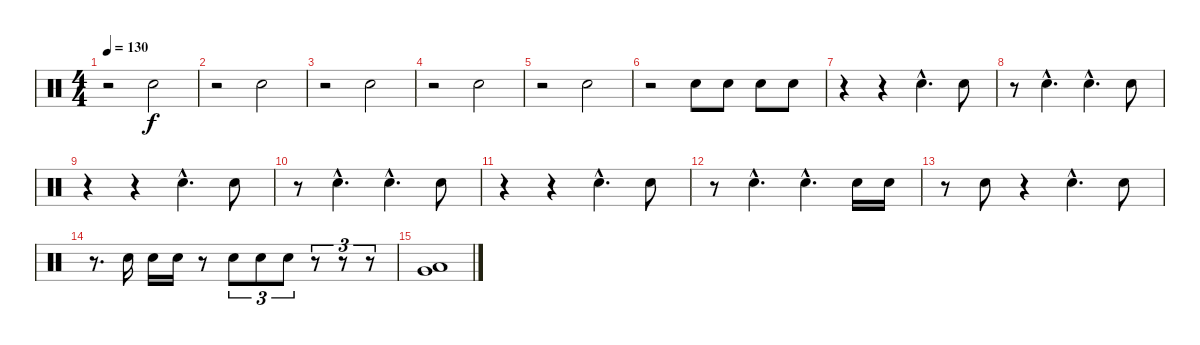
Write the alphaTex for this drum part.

\track "" {instrument percussion}
\staff {score}
\articulation defaults
\ts (4 4)
\tempo 130
\clef neutral
\ks c
r.2{dy f} "Electric Snare (hit)".2 |
r.2 "Electric Snare (hit)".2 |
r.2 "Electric Snare (hit)".2 |
r.2 "Electric Snare (hit)".2 |
r.2 "Electric Snare (hit)".2 |
r.2 "Electric Snare (hit)".8 "Electric Snare (hit)".8 "Electric Snare (hit)".8 "Electric Snare (hit)".8 |
r.4 r.4 "Electric Snare (hit)"{hac}.4{d} "Electric Snare (hit)".8 |
r.8 "Electric Snare (hit)"{hac}.4{d} "Electric Snare (hit)"{hac}.4{d} "Electric Snare (hit)".8 |
r.4 r.4 "Electric Snare (hit)"{hac}.4{d} "Electric Snare (hit)".8 |
r.8 "Electric Snare (hit)"{hac}.4{d} "Electric Snare (hit)"{hac}.4{d} "Electric Snare (hit)".8 |
r.4 r.4 "Electric Snare (hit)"{hac}.4{d} "Electric Snare (hit)".8 |
r.8 "Electric Snare (hit)"{hac}.4{d} "Electric Snare (hit)"{hac}.4{d} "Electric Snare (hit)".16 "Electric Snare (hit)".16 |
r.8 "Electric Snare (hit)".8 r.4 "Electric Snare (hit)"{hac}.4{d} "Electric Snare (hit)".8 |
r.8{d} "Electric Snare (hit)".16 "Electric Snare (hit)".16 "Electric Snare (hit)".16 r.8 "Electric Snare (hit)".8{tu (3 2)} "Electric Snare (hit)".8{tu (3 2)} "Electric Snare (hit)".8{tu (3 2)} r.8{tu (3 2)} r.8{tu (3 2)} r.8{tu (3 2)} |
("Low Tom (hit)" "Very Low Tom (hit)").1
